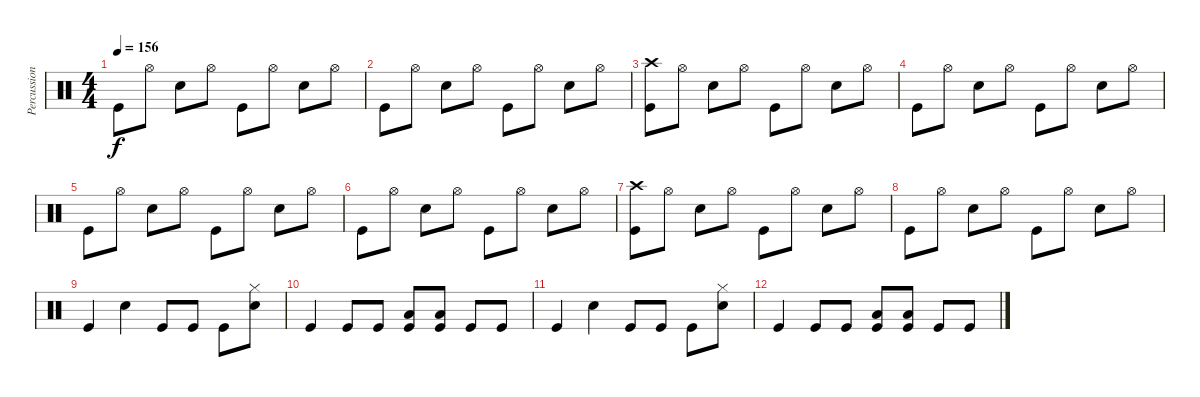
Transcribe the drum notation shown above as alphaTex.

\track ("Percussion" "Percussion") {instrument percussion}
\staff {score}
\articulation defaults
\ts (4 4)
\tempo 156
\clef neutral
\ks c "Kick (hit)".8{dy f} "Hi-Hat (open)".8 "Electric Snare (hit)".8 "Hi-Hat (open)".8 "Kick (hit)".8 "Hi-Hat (open)".8 "Electric Snare (hit)".8 "Hi-Hat (open)".8
|
"Kick (hit)".8 "Hi-Hat (open)".8 "Electric Snare (hit)".8 "Hi-Hat (open)".8 "Kick (hit)".8 "Hi-Hat (open)".8 "Electric Snare (hit)".8 "Hi-Hat (open)".8 |
("Crash high (hit)" "Kick (hit)").8 "Hi-Hat (open)".8 "Electric Snare (hit)".8 "Hi-Hat (open)".8 "Kick (hit)".8 "Hi-Hat (open)".8 "Electric Snare (hit)".8 "Hi-Hat (open)".8 |
"Kick (hit)".8 "Hi-Hat (open)".8 "Electric Snare (hit)".8 "Hi-Hat (open)".8 "Kick (hit)".8 "Hi-Hat (open)".8 "Electric Snare (hit)".8 "Hi-Hat (open)".8 |
"Kick (hit)".8 "Hi-Hat (open)".8 "Electric Snare (hit)".8 "Hi-Hat (open)".8 "Kick (hit)".8 "Hi-Hat (open)".8 "Electric Snare (hit)".8 "Hi-Hat (open)".8 |
"Kick (hit)".8 "Hi-Hat (open)".8 "Electric Snare (hit)".8 "Hi-Hat (open)".8 "Kick (hit)".8 "Hi-Hat (open)".8 "Electric Snare (hit)".8 "Hi-Hat (open)".8 |
("Crash high (hit)" "Kick (hit)").8 "Hi-Hat (open)".8 "Electric Snare (hit)".8 "Hi-Hat (open)".8 "Kick (hit)".8 "Hi-Hat (open)".8 "Electric Snare (hit)".8 "Hi-Hat (open)".8 |
"Kick (hit)".8 "Hi-Hat (open)".8 "Electric Snare (hit)".8 "Hi-Hat (open)".8 "Kick (hit)".8 "Hi-Hat (open)".8 "Electric Snare (hit)".8 "Hi-Hat (open)".8 |
"Kick (hit)".4 "Electric Snare (hit)".4 "Kick (hit)".8 "Kick (hit)".8 "Kick (hit)".8 ("Hi-Hat (closed)" "Electric Snare (hit)").8 |
"Kick (hit)".4 "Kick (hit)".8 "Kick (hit)".8 ("Low Tom (hit)" "Kick (hit)").8 ("Low Tom (hit)" "Kick (hit)").8 "Kick (hit)".8 "Kick (hit)".8 |
"Kick (hit)".4 "Electric Snare (hit)".4 "Kick (hit)".8 "Kick (hit)".8 "Kick (hit)".8 ("Hi-Hat (closed)" "Electric Snare (hit)").8 |
"Kick (hit)".4 "Kick (hit)".8 "Kick (hit)".8 ("Low Tom (hit)" "Kick (hit)").8 ("Low Tom (hit)" "Kick (hit)").8 "Kick (hit)".8 "Kick (hit)".8
